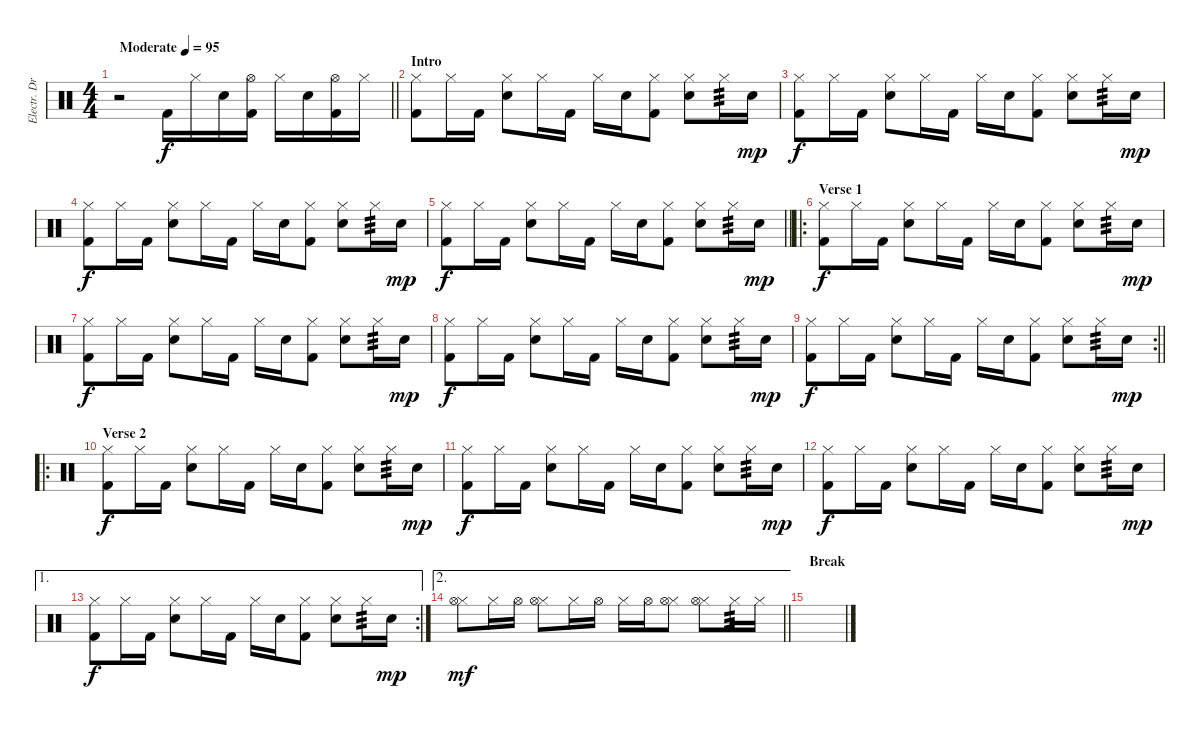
\track ("Electr. Drums" "Electr. Dr") {instrument percussion}
\staff {score}
\articulation defaults
\ts (4 4)
\tempo (95 "Moderate")
\clef neutral
\barLineRight lightlight
\ks c
r.2{dy f} "Kick (hit) 2".16 "Hi-Hat (closed)".16 "Electric Snare (hit)".16 ("Hi-Hat (open)" "Kick (hit) 2").16 "Hi-Hat (closed)".16 "Electric Snare (hit)".16 ("Hi-Hat (open)" "Kick (hit) 2").16 "Hi-Hat (closed)".16 |
\section ("" "Intro")
("Hi-Hat (closed)" "Kick (hit) 2").8 "Hi-Hat (closed)".16 "Kick (hit) 2".16 ("Hi-Hat (closed)" "Electric Snare (hit)").8 "Hi-Hat (closed)".16 "Kick (hit) 2".16 "Hi-Hat (closed)".16 "Electric Snare (hit)".16 ("Hi-Hat (closed)" "Kick (hit) 2").8 ("Hi-Hat (closed)" "Electric Snare (hit)").8 "Hi-Hat (closed)".16{tp 3} "Electric Snare (hit)".16{dy mp} |
("Hi-Hat (closed)" "Kick (hit) 2").8{dy f} "Hi-Hat (closed)".16 "Kick (hit) 2".16 ("Hi-Hat (closed)" "Electric Snare (hit)").8 "Hi-Hat (closed)".16 "Kick (hit) 2".16 "Hi-Hat (closed)".16 "Electric Snare (hit)".16 ("Hi-Hat (closed)" "Kick (hit) 2").8 ("Hi-Hat (closed)" "Electric Snare (hit)").8 "Hi-Hat (closed)".16{tp 3} "Electric Snare (hit)".16{dy mp} |
("Hi-Hat (closed)" "Kick (hit) 2").8{dy f} "Hi-Hat (closed)".16 "Kick (hit) 2".16 ("Hi-Hat (closed)" "Electric Snare (hit)").8 "Hi-Hat (closed)".16 "Kick (hit) 2".16 "Hi-Hat (closed)".16 "Electric Snare (hit)".16 ("Hi-Hat (closed)" "Kick (hit) 2").8 ("Hi-Hat (closed)" "Electric Snare (hit)").8 "Hi-Hat (closed)".16{tp 3} "Electric Snare (hit)".16{dy mp} |
\barLineRight lightlight
("Hi-Hat (closed)" "Kick (hit) 2").8{dy f} "Hi-Hat (closed)".16 "Kick (hit) 2".16 ("Hi-Hat (closed)" "Electric Snare (hit)").8 "Hi-Hat (closed)".16 "Kick (hit) 2".16 "Hi-Hat (closed)".16 "Electric Snare (hit)".16 ("Hi-Hat (closed)" "Kick (hit) 2").8 ("Hi-Hat (closed)" "Electric Snare (hit)").8 "Hi-Hat (closed)".16{tp 3} "Electric Snare (hit)".16{dy mp} |
\ro
\section ("" "Verse 1")
("Hi-Hat (closed)" "Kick (hit) 2").8{dy f} "Hi-Hat (closed)".16 "Kick (hit) 2".16 ("Hi-Hat (closed)" "Electric Snare (hit)").8 "Hi-Hat (closed)".16 "Kick (hit) 2".16 "Hi-Hat (closed)".16 "Electric Snare (hit)".16 ("Hi-Hat (closed)" "Kick (hit) 2").8 ("Hi-Hat (closed)" "Electric Snare (hit)").8 "Hi-Hat (closed)".16{tp 3} "Electric Snare (hit)".16{dy mp} |
("Hi-Hat (closed)" "Kick (hit) 2").8{dy f} "Hi-Hat (closed)".16 "Kick (hit) 2".16 ("Hi-Hat (closed)" "Electric Snare (hit)").8 "Hi-Hat (closed)".16 "Kick (hit) 2".16 "Hi-Hat (closed)".16 "Electric Snare (hit)".16 ("Hi-Hat (closed)" "Kick (hit) 2").8 ("Hi-Hat (closed)" "Electric Snare (hit)").8 "Hi-Hat (closed)".16{tp 3} "Electric Snare (hit)".16{dy mp} |
("Hi-Hat (closed)" "Kick (hit) 2").8{dy f} "Hi-Hat (closed)".16 "Kick (hit) 2".16 ("Hi-Hat (closed)" "Electric Snare (hit)").8 "Hi-Hat (closed)".16 "Kick (hit) 2".16 "Hi-Hat (closed)".16 "Electric Snare (hit)".16 ("Hi-Hat (closed)" "Kick (hit) 2").8 ("Hi-Hat (closed)" "Electric Snare (hit)").8 "Hi-Hat (closed)".16{tp 3} "Electric Snare (hit)".16{dy mp} |
\rc 2
\barLineRight lightlight
("Hi-Hat (closed)" "Kick (hit) 2").8{dy f} "Hi-Hat (closed)".16 "Kick (hit) 2".16 ("Hi-Hat (closed)" "Electric Snare (hit)").8 "Hi-Hat (closed)".16 "Kick (hit) 2".16 "Hi-Hat (closed)".16 "Electric Snare (hit)".16 ("Hi-Hat (closed)" "Kick (hit) 2").8 ("Hi-Hat (closed)" "Electric Snare (hit)").8 "Hi-Hat (closed)".16{tp 3} "Electric Snare (hit)".16{dy mp} |
\ro
\section ("" "Verse 2")
("Hi-Hat (closed)" "Kick (hit) 2").8{dy f} "Hi-Hat (closed)".16 "Kick (hit) 2".16 ("Hi-Hat (closed)" "Electric Snare (hit)").8 "Hi-Hat (closed)".16 "Kick (hit) 2".16 "Hi-Hat (closed)".16 "Electric Snare (hit)".16 ("Hi-Hat (closed)" "Kick (hit) 2").8 ("Hi-Hat (closed)" "Electric Snare (hit)").8 "Hi-Hat (closed)".16{tp 3} "Electric Snare (hit)".16{dy mp} |
("Hi-Hat (closed)" "Kick (hit) 2").8{dy f} "Hi-Hat (closed)".16 "Kick (hit) 2".16 ("Hi-Hat (closed)" "Electric Snare (hit)").8 "Hi-Hat (closed)".16 "Kick (hit) 2".16 "Hi-Hat (closed)".16 "Electric Snare (hit)".16 ("Hi-Hat (closed)" "Kick (hit) 2").8 ("Hi-Hat (closed)" "Electric Snare (hit)").8 "Hi-Hat (closed)".16{tp 3} "Electric Snare (hit)".16{dy mp} |
("Hi-Hat (closed)" "Kick (hit) 2").8{dy f} "Hi-Hat (closed)".16 "Kick (hit) 2".16 ("Hi-Hat (closed)" "Electric Snare (hit)").8 "Hi-Hat (closed)".16 "Kick (hit) 2".16 "Hi-Hat (closed)".16 "Electric Snare (hit)".16 ("Hi-Hat (closed)" "Kick (hit) 2").8 ("Hi-Hat (closed)" "Electric Snare (hit)").8 "Hi-Hat (closed)".16{tp 3} "Electric Snare (hit)".16{dy mp} |
\ae 1
\rc 2
("Hi-Hat (closed)" "Kick (hit) 2").8{dy f} "Hi-Hat (closed)".16 "Kick (hit) 2".16 ("Hi-Hat (closed)" "Electric Snare (hit)").8 "Hi-Hat (closed)".16 "Kick (hit) 2".16 "Hi-Hat (closed)".16 "Electric Snare (hit)".16 ("Hi-Hat (closed)" "Kick (hit) 2").8 ("Hi-Hat (closed)" "Electric Snare (hit)").8 "Hi-Hat (closed)".16{tp 3} "Electric Snare (hit)".16{dy mp} |
\ae 2
\barLineRight lightlight
("Hi-Hat (closed)" "Hi-Hat (open)").8{dy mf} "Hi-Hat (closed)".16 "Hi-Hat (open)".16 ("Hi-Hat (closed)" "Hi-Hat (open)").8 "Hi-Hat (closed)".16 "Hi-Hat (open)".16 "Hi-Hat (closed)".16 "Hi-Hat (open)".16 ("Hi-Hat (closed)" "Hi-Hat (open)").8 ("Hi-Hat (closed)" "Hi-Hat (open)").8 "Hi-Hat (closed)".16{tp 3} "Hi-Hat (closed)".16 |
\section ("" "Break")
